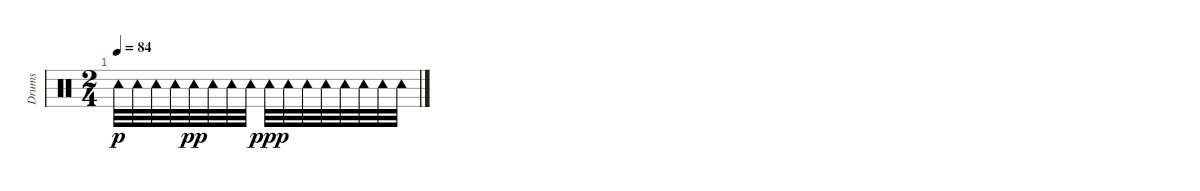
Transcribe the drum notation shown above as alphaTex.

\track ("Drums" "Drums") {instrument percussion}
\staff {score}
\articulation defaults
\ts (2 4)
\tempo 84
\clef neutral
\ks c "Tambourine (hit)".32{dy p} "Tambourine (hit)".32 "Tambourine (hit)".32 "Tambourine (hit)".32 "Tambourine (hit)".32{dy pp} "Tambourine (hit)".32 "Tambourine (hit)".32 "Tambourine (hit)".32 "Tambourine (hit)".32{dy ppp} "Tambourine (hit)".32 "Tambourine (hit)".32 "Tambourine (hit)".32 "Tambourine (hit)".32 "Tambourine (hit)".32 "Tambourine (hit)".32 "Tambourine (hit)".32
